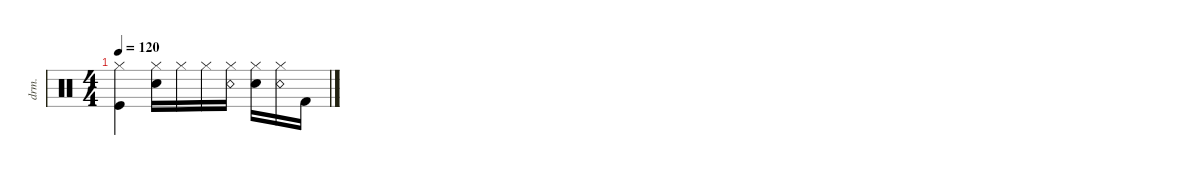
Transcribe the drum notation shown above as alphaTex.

\defaultSystemsLayout 4
\hideDynamics
\bracketExtendMode nobrackets
\otherSystemsTrackNameOrientation horizontal
\track ("Drumkit" "drm.") {mute instrument percussion}
\staff {score}
\articulation defaults
\ts (4 4)
\tempo 120
\clef neutral
\ks c
("Kick (hit)" "Hi-Hat (closed)").4{dy mf beam Down} ("Hi-Hat (closed)" "Snare (hit) 2").16{beam Down} "Hi-Hat (closed)".16{beam Down} "Hi-Hat (closed)".16{beam Down} ("Hi-Hat (closed)" "Snare (rim shot)").16{beam Down} ("Hi-Hat (closed)" "Snare (hit) 2").16{beam Down} ("Hi-Hat (closed)" "Snare (rim shot)").16{beam Down} "Kick (hit) 2".16{beam Down}
